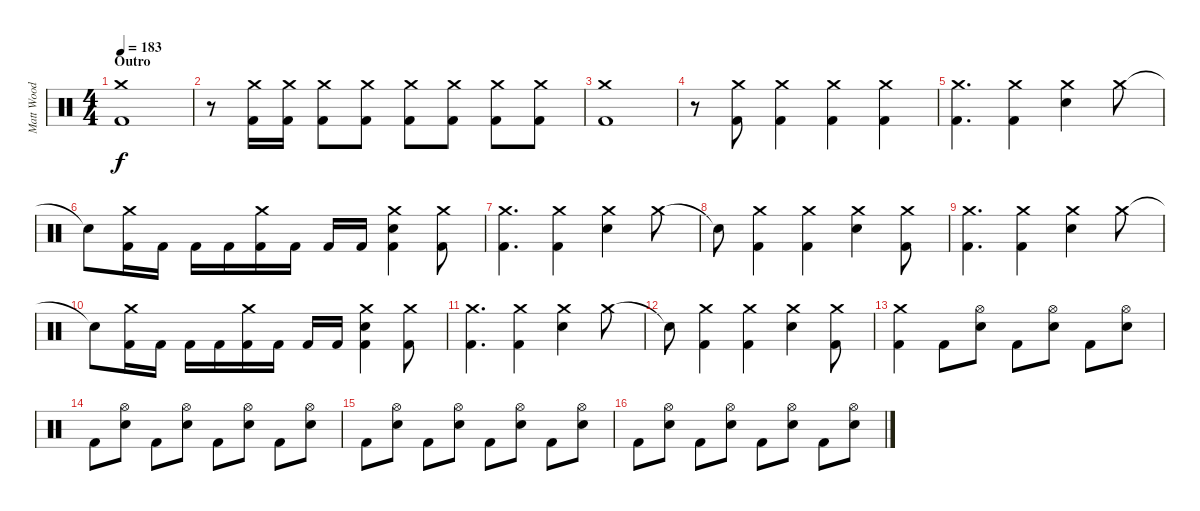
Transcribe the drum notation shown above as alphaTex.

\track ("Matt Wood" "Matt Wood") {instrument percussion}
\staff {score}
\articulation defaults
\ts (4 4)
\section ("" "Outro")
\tempo 183
\clef neutral
\ks c
("Crash medium (hit)" "Kick (hit) 2").1{dy f} |
r.8 ("Crash medium (hit)" "Kick (hit) 2").16 ("Crash medium (hit)" "Kick (hit) 2").16 ("Crash medium (hit)" "Kick (hit) 2").8 ("Crash medium (hit)" "Kick (hit) 2").8 ("Crash medium (hit)" "Kick (hit) 2").8 ("Crash medium (hit)" "Kick (hit) 2").8 ("Crash medium (hit)" "Kick (hit) 2").8 ("Crash medium (hit)" "Kick (hit) 2").8 |
("Crash medium (hit)" "Kick (hit) 2").1 |
r.8 ("Crash medium (hit)" "Kick (hit) 2").8 ("Crash medium (hit)" "Kick (hit) 2").4 ("Crash medium (hit)" "Kick (hit) 2").4 ("Crash medium (hit)" "Kick (hit) 2").4 |
("Crash medium (hit)" "Kick (hit) 2").4{d} ("Crash medium (hit)" "Kick (hit) 2").4 ("Crash medium (hit)" "Snare (hit) 2").4 "Crash medium (hit)".8 |
"Snare (hit)"{t}.8 ("Crash medium (hit)" "Kick (hit) 2").16 "Kick (hit) 2".16 "Kick (hit) 2".16 "Kick (hit) 2".16 ("Crash medium (hit)" "Kick (hit) 2").16 "Kick (hit) 2".16 "Kick (hit) 2".16 "Kick (hit) 2".16 ("Crash medium (hit)" "Snare (hit) 2" "Kick (hit) 2").4 ("Crash medium (hit)" "Kick (hit) 2").8 |
("Crash medium (hit)" "Kick (hit) 2").4{d} ("Crash medium (hit)" "Kick (hit) 2").4 ("Crash medium (hit)" "Snare (hit) 2").4 "Crash medium (hit)".8 |
"Snare (hit)"{t}.8 ("Crash medium (hit)" "Kick (hit) 2").4 ("Crash medium (hit)" "Kick (hit) 2").4 ("Crash medium (hit)" "Snare (hit) 2").4 ("Crash medium (hit)" "Kick (hit) 2").8 |
("Crash medium (hit)" "Kick (hit) 2").4{d} ("Crash medium (hit)" "Kick (hit) 2").4 ("Crash medium (hit)" "Snare (hit) 2").4 "Crash medium (hit)".8 |
"Snare (hit)"{t}.8 ("Crash medium (hit)" "Kick (hit) 2").16 "Kick (hit) 2".16 "Kick (hit) 2".16 "Kick (hit) 2".16 ("Crash medium (hit)" "Kick (hit) 2").16 "Kick (hit) 2".16 "Kick (hit) 2".16 "Kick (hit) 2".16 ("Crash medium (hit)" "Snare (hit) 2" "Kick (hit) 2").4 ("Crash medium (hit)" "Kick (hit) 2").8 |
("Crash medium (hit)" "Kick (hit) 2").4{d} ("Crash medium (hit)" "Kick (hit) 2").4 ("Crash medium (hit)" "Snare (hit) 2").4 "Crash medium (hit)".8 |
"Snare (hit)"{t}.8 ("Crash medium (hit)" "Kick (hit) 2").4 ("Crash medium (hit)" "Kick (hit) 2").4 ("Crash medium (hit)" "Snare (hit) 2").4 ("Crash medium (hit)" "Kick (hit) 2").8 |
("Crash medium (hit)" "Kick (hit) 2").4 "Kick (hit) 2".8 ("Hi-Hat (open)" "Snare (hit) 2").8 "Kick (hit) 2".8 ("Hi-Hat (open)" "Snare (hit) 2").8 "Kick (hit) 2".8 ("Hi-Hat (open)" "Snare (hit) 2").8 |
"Kick (hit) 2".8 ("Hi-Hat (open)" "Snare (hit) 2").8 "Kick (hit) 2".8 ("Hi-Hat (open)" "Snare (hit) 2").8 "Kick (hit) 2".8 ("Hi-Hat (open)" "Snare (hit) 2").8 "Kick (hit) 2".8 ("Hi-Hat (open)" "Snare (hit) 2").8 |
"Kick (hit) 2".8 ("Hi-Hat (open)" "Snare (hit) 2").8 "Kick (hit) 2".8 ("Hi-Hat (open)" "Snare (hit) 2").8 "Kick (hit) 2".8 ("Hi-Hat (open)" "Snare (hit) 2").8 "Kick (hit) 2".8 ("Hi-Hat (open)" "Snare (hit) 2").8 |
"Kick (hit) 2".8 ("Hi-Hat (open)" "Snare (hit) 2").8 "Kick (hit) 2".8 ("Hi-Hat (open)" "Snare (hit) 2").8 "Kick (hit) 2".8 ("Hi-Hat (open)" "Snare (hit) 2").8 "Kick (hit) 2".8 ("Hi-Hat (open)" "Snare (hit) 2").8
